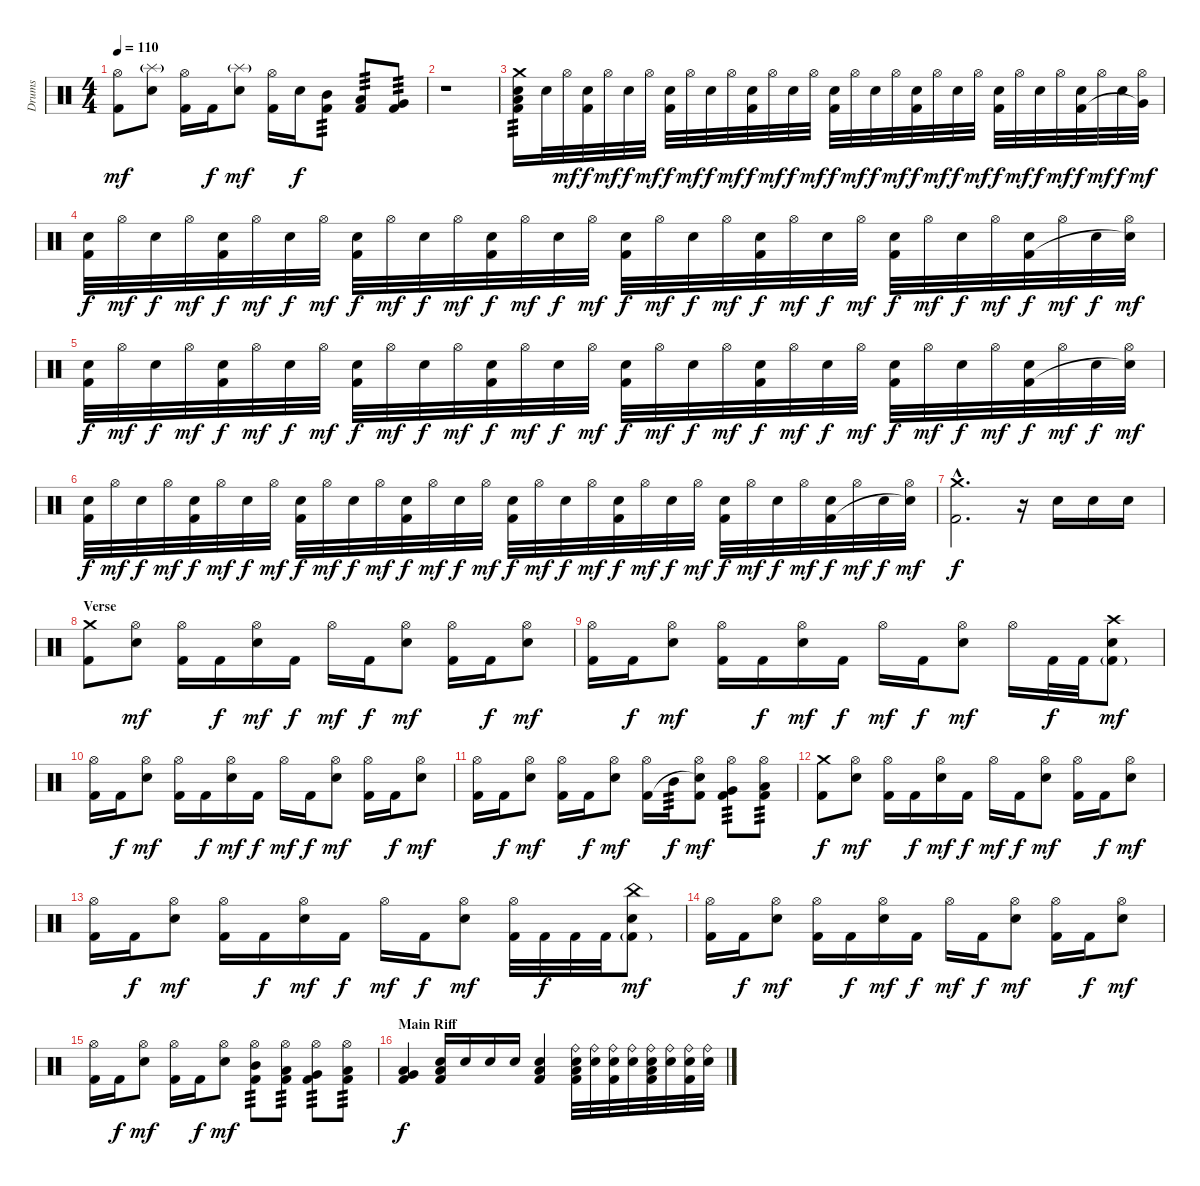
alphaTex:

\track ("Drums" "Drums") {instrument percussion}
\staff {score}
\articulation defaults
\ts (4 4)
\tempo 110
\clef neutral
\ks c
("Hi-Hat (open)" "Kick (hit) 2").8{dy mf} ("Splash (hit)"{g} "Electric Snare (hit)").8 ("Hi-Hat (open)" "Kick (hit) 2").16 "Kick (hit) 2".16{dy f} ("Splash (hit)"{g} "Electric Snare (hit)").8{dy mf} ("Hi-Hat (open)" "Kick (hit) 2").16 "Electric Snare (hit)".16{dy f} ("Mid Tom (hit)" "Kick (hit) 2").8{tp 3} ("Low Tom (hit)" "Kick (hit) 2").8{tp 3} ("Very Low Tom (hit)" "Kick (hit) 2").8{tp 3} |
r.1 |
("Crash medium (hit)" "Low Floor Tom (hit)" "Electric Snare (hit)" "Kick (hit) 2").16{tp 3} "Electric Snare (hit)".32 "Hi-Hat (open)".32{dy mf} ("Electric Snare (hit)" "Kick (hit) 2").32{dy f} "Hi-Hat (open)".32{dy mf} "Electric Snare (hit)".32{dy f} "Hi-Hat (open)".32{dy mf} ("Electric Snare (hit)" "Kick (hit) 2").32{dy f} "Hi-Hat (open)".32{dy mf} "Electric Snare (hit)".32{dy f} "Hi-Hat (open)".32{dy mf} ("Electric Snare (hit)" "Kick (hit) 2").32{dy f} "Hi-Hat (open)".32{dy mf} "Electric Snare (hit)".32{dy f} "Hi-Hat (open)".32{dy mf} ("Electric Snare (hit)" "Kick (hit) 2").32{dy f} "Hi-Hat (open)".32{dy mf} "Electric Snare (hit)".32{dy f} "Hi-Hat (open)".32{dy mf} ("Electric Snare (hit)" "Kick (hit) 2").32{dy f} "Hi-Hat (open)".32{dy mf} "Electric Snare (hit)".32{dy f} "Hi-Hat (open)".32{dy mf} ("Electric Snare (hit)" "Kick (hit) 2").32{dy f} "Hi-Hat (open)".32{dy mf} "Electric Snare (hit)".32{dy f} "Hi-Hat (open)".32{dy mf} ("Electric Snare (hit)" "Kick (hit) 2").32{dy f} "Hi-Hat (open)".32{dy mf} "Electric Snare (hit)".32{dy f} ("Hi-Hat (open)" "Very Low Tom (hit)"{t}).32{dy mf} |
("Electric Snare (hit)" "Kick (hit) 2").32{dy f} "Hi-Hat (open)".32{dy mf} "Electric Snare (hit)".32{dy f} "Hi-Hat (open)".32{dy mf} ("Electric Snare (hit)" "Kick (hit) 2").32{dy f} "Hi-Hat (open)".32{dy mf} "Electric Snare (hit)".32{dy f} "Hi-Hat (open)".32{dy mf} ("Electric Snare (hit)" "Kick (hit) 2").32{dy f} "Hi-Hat (open)".32{dy mf} "Electric Snare (hit)".32{dy f} "Hi-Hat (open)".32{dy mf} ("Electric Snare (hit)" "Kick (hit) 2").32{dy f} "Hi-Hat (open)".32{dy mf} "Electric Snare (hit)".32{dy f} "Hi-Hat (open)".32{dy mf} ("Electric Snare (hit)" "Kick (hit) 2").32{dy f} "Hi-Hat (open)".32{dy mf} "Electric Snare (hit)".32{dy f} "Hi-Hat (open)".32{dy mf} ("Electric Snare (hit)" "Kick (hit) 2").32{dy f} "Hi-Hat (open)".32{dy mf} "Electric Snare (hit)".32{dy f} "Hi-Hat (open)".32{dy mf} ("Electric Snare (hit)" "Kick (hit) 2").32{dy f} "Hi-Hat (open)".32{dy mf} "Electric Snare (hit)".32{dy f} "Hi-Hat (open)".32{dy mf} ("Electric Snare (hit)" "Kick (hit) 2").32{dy f} "Hi-Hat (open)".32{dy mf} "Electric Snare (hit)".32{dy f} ("Hi-Hat (open)" "Snare (hit)"{t}).32{dy mf} |
("Electric Snare (hit)" "Kick (hit) 2").32{dy f} "Hi-Hat (open)".32{dy mf} "Electric Snare (hit)".32{dy f} "Hi-Hat (open)".32{dy mf} ("Electric Snare (hit)" "Kick (hit) 2").32{dy f} "Hi-Hat (open)".32{dy mf} "Electric Snare (hit)".32{dy f} "Hi-Hat (open)".32{dy mf} ("Electric Snare (hit)" "Kick (hit) 2").32{dy f} "Hi-Hat (open)".32{dy mf} "Electric Snare (hit)".32{dy f} "Hi-Hat (open)".32{dy mf} ("Electric Snare (hit)" "Kick (hit) 2").32{dy f} "Hi-Hat (open)".32{dy mf} "Electric Snare (hit)".32{dy f} "Hi-Hat (open)".32{dy mf} ("Electric Snare (hit)" "Kick (hit) 2").32{dy f} "Hi-Hat (open)".32{dy mf} "Electric Snare (hit)".32{dy f} "Hi-Hat (open)".32{dy mf} ("Electric Snare (hit)" "Kick (hit) 2").32{dy f} "Hi-Hat (open)".32{dy mf} "Electric Snare (hit)".32{dy f} "Hi-Hat (open)".32{dy mf} ("Electric Snare (hit)" "Kick (hit) 2").32{dy f} "Hi-Hat (open)".32{dy mf} "Electric Snare (hit)".32{dy f} "Hi-Hat (open)".32{dy mf} ("Electric Snare (hit)" "Kick (hit) 2").32{dy f} "Hi-Hat (open)".32{dy mf} "Electric Snare (hit)".32{dy f} ("Hi-Hat (open)" "Snare (hit)"{t}).32{dy mf} |
("Electric Snare (hit)" "Kick (hit) 2").32{dy f} "Hi-Hat (open)".32{dy mf} "Electric Snare (hit)".32{dy f} "Hi-Hat (open)".32{dy mf} ("Electric Snare (hit)" "Kick (hit) 2").32{dy f} "Hi-Hat (open)".32{dy mf} "Electric Snare (hit)".32{dy f} "Hi-Hat (open)".32{dy mf} ("Electric Snare (hit)" "Kick (hit) 2").32{dy f} "Hi-Hat (open)".32{dy mf} "Electric Snare (hit)".32{dy f} "Hi-Hat (open)".32{dy mf} ("Electric Snare (hit)" "Kick (hit) 2").32{dy f} "Hi-Hat (open)".32{dy mf} "Electric Snare (hit)".32{dy f} "Hi-Hat (open)".32{dy mf} ("Electric Snare (hit)" "Kick (hit) 2").32{dy f} "Hi-Hat (open)".32{dy mf} "Electric Snare (hit)".32{dy f} "Hi-Hat (open)".32{dy mf} ("Electric Snare (hit)" "Kick (hit) 2").32{dy f} "Hi-Hat (open)".32{dy mf} "Electric Snare (hit)".32{dy f} "Hi-Hat (open)".32{dy mf} ("Electric Snare (hit)" "Kick (hit) 2").32{dy f} "Hi-Hat (open)".32{dy mf} "Electric Snare (hit)".32{dy f} "Hi-Hat (open)".32{dy mf} ("Electric Snare (hit)" "Kick (hit) 2").32{dy f} "Hi-Hat (open)".32{dy mf} "Electric Snare (hit)".32{dy f} ("Hi-Hat (open)" "Snare (hit)"{t}).32{dy mf} |
("Crash medium (hit)"{hac} "Kick (hit) 2"{hac}).2{d dy f} r.16 "Electric Snare (hit)".16 "Electric Snare (hit)".16 "Electric Snare (hit)".16 |
\section ("" "Verse")
("Crash medium (hit)" "Kick (hit) 2").8 ("Hi-Hat (open)" "Electric Snare (hit)").8{dy mf} ("Hi-Hat (open)" "Kick (hit) 2").16 "Kick (hit) 2".16{dy f} ("Hi-Hat (open)" "Electric Snare (hit)").16{dy mf} "Kick (hit) 2".16{dy f} "Hi-Hat (open)".16{dy mf} "Kick (hit) 2".16{dy f} ("Hi-Hat (open)" "Electric Snare (hit)").8{dy mf} ("Hi-Hat (open)" "Kick (hit) 2").16 "Kick (hit) 2".16{dy f} ("Hi-Hat (open)" "Electric Snare (hit)").8{dy mf} |
("Hi-Hat (open)" "Kick (hit) 2").16 "Kick (hit) 2".16{dy f} ("Hi-Hat (open)" "Electric Snare (hit)").8{dy mf} ("Hi-Hat (open)" "Kick (hit) 2").16 "Kick (hit) 2".16{dy f} ("Hi-Hat (open)" "Electric Snare (hit)").16{dy mf} "Kick (hit) 2".16{dy f} "Hi-Hat (open)".16{dy mf} "Kick (hit) 2".16{dy f} ("Hi-Hat (open)" "Electric Snare (hit)").8{dy mf} "Hi-Hat (open)".16 "Kick (hit) 2".32{dy f} "Kick (hit) 2".32 ("Crash high (hit)" "Electric Snare (hit)" "Kick (hit) 2"{g}).8{dy mf} |
("Hi-Hat (open)" "Kick (hit) 2").16 "Kick (hit) 2".16{dy f} ("Hi-Hat (open)" "Electric Snare (hit)").8{dy mf} ("Hi-Hat (open)" "Kick (hit) 2").16 "Kick (hit) 2".16{dy f} ("Hi-Hat (open)" "Electric Snare (hit)").16{dy mf} "Kick (hit) 2".16{dy f} "Hi-Hat (open)".16{dy mf} "Kick (hit) 2".16{dy f} ("Hi-Hat (open)" "Electric Snare (hit)").8{dy mf} ("Hi-Hat (open)" "Kick (hit) 2").16 "Kick (hit) 2".16{dy f} ("Hi-Hat (open)" "Electric Snare (hit)").8{dy mf} |
("Hi-Hat (open)" "Kick (hit) 2").16 "Kick (hit) 2".16{dy f} ("Hi-Hat (open)" "Electric Snare (hit)").8{dy mf} ("Hi-Hat (open)" "Kick (hit) 2").16 "Kick (hit) 2".16{dy f} ("Hi-Hat (open)" "Electric Snare (hit)").8{dy mf} ("Hi-Hat (open)" "Kick (hit) 2").16 "Mid Tom (hit)".16{tp 3 dy f} ("Hi-Hat (open)" "Snare (hit)"{t} "Kick (hit) 2").8{dy mf} ("Hi-Hat (open)" "Very Low Tom (hit)" "Kick (hit) 2").8{tp 3} ("Hi-Hat (open)" "Low Floor Tom (hit)" "Kick (hit) 2").8{tp 3} |
("Crash medium (hit)" "Kick (hit) 2").8{dy f} ("Hi-Hat (open)" "Electric Snare (hit)").8{dy mf} ("Hi-Hat (open)" "Kick (hit) 2").16 "Kick (hit) 2".16{dy f} ("Hi-Hat (open)" "Electric Snare (hit)").16{dy mf} "Kick (hit) 2".16{dy f} "Hi-Hat (open)".16{dy mf} "Kick (hit) 2".16{dy f} ("Hi-Hat (open)" "Electric Snare (hit)").8{dy mf} ("Hi-Hat (open)" "Kick (hit) 2").16 "Kick (hit) 2".16{dy f} ("Hi-Hat (open)" "Electric Snare (hit)").8{dy mf} |
("Hi-Hat (open)" "Kick (hit) 2").16 "Kick (hit) 2".16{dy f} ("Hi-Hat (open)" "Electric Snare (hit)").8{dy mf} ("Hi-Hat (open)" "Kick (hit) 2").16 "Kick (hit) 2".16{dy f} ("Hi-Hat (open)" "Electric Snare (hit)").16{dy mf} "Kick (hit) 2".16{dy f} "Hi-Hat (open)".16{dy mf} "Kick (hit) 2".16{dy f} ("Hi-Hat (open)" "Electric Snare (hit)").8{dy mf} ("Hi-Hat (open)" "Kick (hit) 2").32 "Kick (hit) 2".32{dy f} "Kick (hit) 2".32 "Kick (hit) 2".32 ("China (hit)" "Electric Snare (hit)" "Kick (hit) 2"{g}).8{dy mf} |
("Hi-Hat (open)" "Kick (hit) 2").16 "Kick (hit) 2".16{dy f} ("Hi-Hat (open)" "Electric Snare (hit)").8{dy mf} ("Hi-Hat (open)" "Kick (hit) 2").16 "Kick (hit) 2".16{dy f} ("Hi-Hat (open)" "Electric Snare (hit)").16{dy mf} "Kick (hit) 2".16{dy f} "Hi-Hat (open)".16{dy mf} "Kick (hit) 2".16{dy f} ("Hi-Hat (open)" "Electric Snare (hit)").8{dy mf} ("Hi-Hat (open)" "Kick (hit) 2").16 "Kick (hit) 2".16{dy f} ("Hi-Hat (open)" "Electric Snare (hit)").8{dy mf} |
("Hi-Hat (open)" "Kick (hit) 2").16 "Kick (hit) 2".16{dy f} ("Hi-Hat (open)" "Electric Snare (hit)").8{dy mf} ("Hi-Hat (open)" "Kick (hit) 2").16 "Kick (hit) 2".16{dy f} ("Hi-Hat (open)" "Electric Snare (hit)").8{dy mf} ("Hi-Hat (open)" "Mid Tom (hit)" "Kick (hit) 2").8{tp 3} ("Hi-Hat (open)" "Low Tom (hit)" "Kick (hit) 2").8{tp 3} ("Hi-Hat (open)" "Very Low Tom (hit)" "Kick (hit) 2").8{tp 3} ("Hi-Hat (open)" "Low Floor Tom (hit)" "Kick (hit) 2").8{tp 3} |
\section ("" "Main Riff")
("Very Low Tom (hit)" "Low Floor Tom (hit)" "Kick (hit) 2").4{dy f} ("Low Floor Tom (hit)" "Electric Snare (hit)" "Kick (hit) 2").16 "Electric Snare (hit)".16 "Electric Snare (hit)".16 "Electric Snare (hit)".16 ("Low Floor Tom (hit)" "Electric Snare (hit)" "Kick (hit) 2").4 ("Ride (bell)" "Low Floor Tom (hit)" "Electric Snare (hit)" "Kick (hit) 2").32 ("Ride (bell)" "Electric Snare (hit)").32 ("Ride (bell)" "Electric Snare (hit)" "Kick (hit) 2").32 ("Ride (bell)" "Electric Snare (hit)").32 ("Ride (bell)" "Low Floor Tom (hit)" "Electric Snare (hit)" "Kick (hit) 2").32 ("Ride (bell)" "Electric Snare (hit)").32 ("Ride (bell)" "Electric Snare (hit)" "Kick (hit) 2").32 ("Ride (bell)" "Electric Snare (hit)").32
